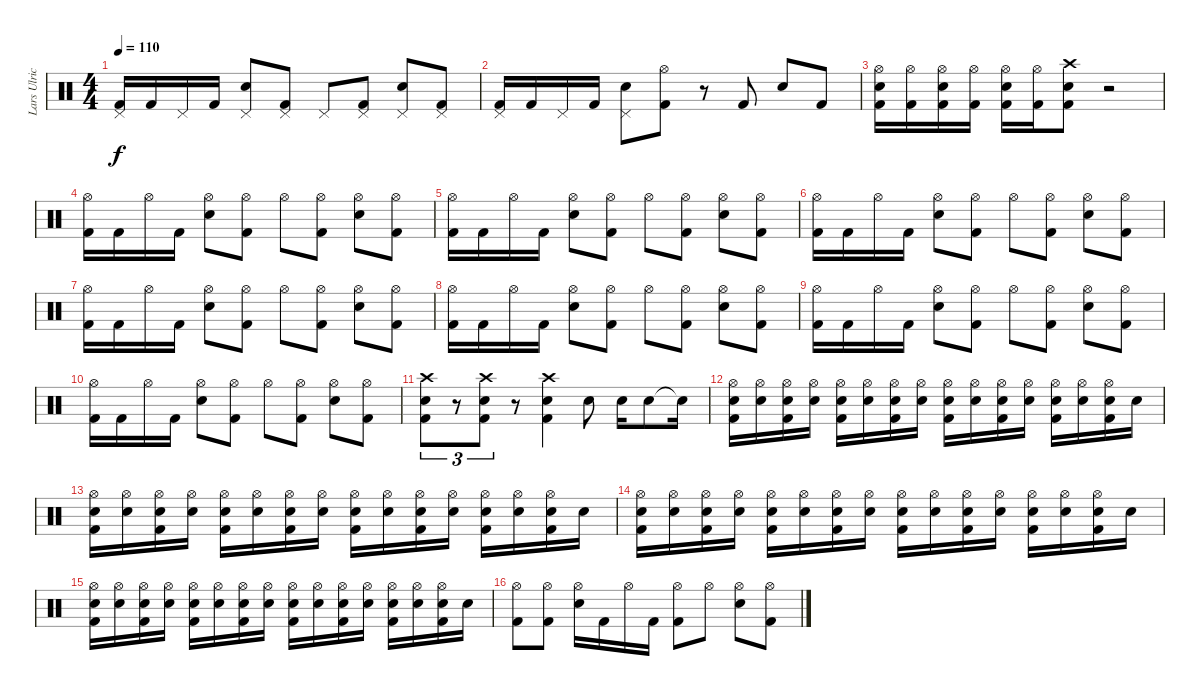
\track ("Lars Ulrich" "Lars Ulric") {instrument percussion}
\staff {score}
\articulation defaults
\ts (4 4)
\tempo 110
\clef neutral
\ks c
("Pedal Hi-Hat (hit)" "Kick (hit) 2").16{dy f} "Kick (hit) 2".16 "Pedal Hi-Hat (hit)".16 "Kick (hit) 2".16 ("Pedal Hi-Hat (hit)" "Electric Snare (hit)").8 ("Pedal Hi-Hat (hit)" "Kick (hit) 2").8 "Pedal Hi-Hat (hit)".8 ("Pedal Hi-Hat (hit)" "Kick (hit) 2").8 ("Pedal Hi-Hat (hit)" "Electric Snare (hit)").8 ("Pedal Hi-Hat (hit)" "Kick (hit) 2").8 |
("Pedal Hi-Hat (hit)" "Kick (hit) 2").16 "Kick (hit) 2".16 "Pedal Hi-Hat (hit)".16 "Kick (hit) 2".16 ("Pedal Hi-Hat (hit)" "Electric Snare (hit)").8 ("Hi-Hat (open)" "Kick (hit) 2").8 r.8 "Kick (hit) 2".8 "Electric Snare (hit)".8 "Kick (hit) 2".8 |
("Hi-Hat (open)" "Electric Snare (hit)" "Kick (hit) 2").16 ("Hi-Hat (open)" "Kick (hit) 2").16 ("Hi-Hat (open)" "Electric Snare (hit)" "Kick (hit) 2").16 ("Hi-Hat (open)" "Kick (hit) 2").16 ("Hi-Hat (open)" "Electric Snare (hit)" "Kick (hit) 2").16 ("Hi-Hat (open)" "Kick (hit) 2").16 ("Crash high (hit)" "Electric Snare (hit)" "Kick (hit) 2").8 r.2 |
("Hi-Hat (open)" "Kick (hit) 2").16 "Kick (hit) 2".16 "Hi-Hat (open)".16 "Kick (hit) 2".16 ("Hi-Hat (open)" "Electric Snare (hit)").8 ("Hi-Hat (open)" "Kick (hit) 2").8 "Hi-Hat (open)".8 ("Hi-Hat (open)" "Kick (hit) 2").8 ("Hi-Hat (open)" "Electric Snare (hit)").8 ("Hi-Hat (open)" "Kick (hit) 2").8 |
("Hi-Hat (open)" "Kick (hit) 2").16 "Kick (hit) 2".16 "Hi-Hat (open)".16 "Kick (hit) 2".16 ("Hi-Hat (open)" "Electric Snare (hit)").8 ("Hi-Hat (open)" "Kick (hit) 2").8 "Hi-Hat (open)".8 ("Hi-Hat (open)" "Kick (hit) 2").8 ("Hi-Hat (open)" "Electric Snare (hit)").8 ("Hi-Hat (open)" "Kick (hit) 2").8 |
("Hi-Hat (open)" "Kick (hit) 2").16 "Kick (hit) 2".16 "Hi-Hat (open)".16 "Kick (hit) 2".16 ("Hi-Hat (open)" "Electric Snare (hit)").8 ("Hi-Hat (open)" "Kick (hit) 2").8 "Hi-Hat (open)".8 ("Hi-Hat (open)" "Kick (hit) 2").8 ("Hi-Hat (open)" "Electric Snare (hit)").8 ("Hi-Hat (open)" "Kick (hit) 2").8 |
("Hi-Hat (open)" "Kick (hit) 2").16 "Kick (hit) 2".16 "Hi-Hat (open)".16 "Kick (hit) 2".16 ("Hi-Hat (open)" "Electric Snare (hit)").8 ("Hi-Hat (open)" "Kick (hit) 2").8 "Hi-Hat (open)".8 ("Hi-Hat (open)" "Kick (hit) 2").8 ("Hi-Hat (open)" "Electric Snare (hit)").8 ("Hi-Hat (open)" "Kick (hit) 2").8 |
("Hi-Hat (open)" "Kick (hit) 2").16 "Kick (hit) 2".16 "Hi-Hat (open)".16 "Kick (hit) 2".16 ("Hi-Hat (open)" "Electric Snare (hit)").8 ("Hi-Hat (open)" "Kick (hit) 2").8 "Hi-Hat (open)".8 ("Hi-Hat (open)" "Kick (hit) 2").8 ("Hi-Hat (open)" "Electric Snare (hit)").8 ("Hi-Hat (open)" "Kick (hit) 2").8 |
("Hi-Hat (open)" "Kick (hit) 2").16 "Kick (hit) 2".16 "Hi-Hat (open)".16 "Kick (hit) 2".16 ("Hi-Hat (open)" "Electric Snare (hit)").8 ("Hi-Hat (open)" "Kick (hit) 2").8 "Hi-Hat (open)".8 ("Hi-Hat (open)" "Kick (hit) 2").8 ("Hi-Hat (open)" "Electric Snare (hit)").8 ("Hi-Hat (open)" "Kick (hit) 2").8 |
("Hi-Hat (open)" "Kick (hit) 2").16 "Kick (hit) 2".16 "Hi-Hat (open)".16 "Kick (hit) 2".16 ("Hi-Hat (open)" "Electric Snare (hit)").8 ("Hi-Hat (open)" "Kick (hit) 2").8 "Hi-Hat (open)".8 ("Hi-Hat (open)" "Kick (hit) 2").8 ("Hi-Hat (open)" "Electric Snare (hit)").8 ("Hi-Hat (open)" "Kick (hit) 2").8 |
("Crash high (hit)" "Electric Snare (hit)" "Kick (hit) 2").8{tu (3 2)} r.8{tu (3 2)} ("Crash high (hit)" "Electric Snare (hit)" "Kick (hit) 2").8{tu (3 2)} r.8 ("Crash high (hit)" "Electric Snare (hit)" "Kick (hit) 2").4 "Electric Snare (hit)".8 "Electric Snare (hit)".16 "Electric Snare (hit)".8 "Snare (hit)"{t}.16 |
("Hi-Hat (open)" "Electric Snare (hit)" "Kick (hit) 2").16 ("Hi-Hat (open)" "Electric Snare (hit)").16 ("Hi-Hat (open)" "Electric Snare (hit)" "Kick (hit) 2").16 ("Hi-Hat (open)" "Electric Snare (hit)").16 ("Hi-Hat (open)" "Electric Snare (hit)" "Kick (hit) 2").16 ("Hi-Hat (open)" "Electric Snare (hit)").16 ("Hi-Hat (open)" "Electric Snare (hit)" "Kick (hit) 2").16 ("Hi-Hat (open)" "Electric Snare (hit)").16 ("Hi-Hat (open)" "Electric Snare (hit)" "Kick (hit) 2").16 ("Hi-Hat (open)" "Electric Snare (hit)").16 ("Hi-Hat (open)" "Electric Snare (hit)" "Kick (hit) 2").16 ("Hi-Hat (open)" "Electric Snare (hit)").16 ("Hi-Hat (open)" "Electric Snare (hit)" "Kick (hit) 2").16 ("Hi-Hat (open)" "Electric Snare (hit)").16 ("Hi-Hat (open)" "Electric Snare (hit)" "Kick (hit) 2").16 "Electric Snare (hit)".16 |
("Hi-Hat (open)" "Electric Snare (hit)" "Kick (hit) 2").16 ("Hi-Hat (open)" "Electric Snare (hit)").16 ("Hi-Hat (open)" "Electric Snare (hit)" "Kick (hit) 2").16 ("Hi-Hat (open)" "Electric Snare (hit)").16 ("Hi-Hat (open)" "Electric Snare (hit)" "Kick (hit) 2").16 ("Hi-Hat (open)" "Electric Snare (hit)").16 ("Hi-Hat (open)" "Electric Snare (hit)" "Kick (hit) 2").16 ("Hi-Hat (open)" "Electric Snare (hit)").16 ("Hi-Hat (open)" "Electric Snare (hit)" "Kick (hit) 2").16 ("Hi-Hat (open)" "Electric Snare (hit)").16 ("Hi-Hat (open)" "Electric Snare (hit)" "Kick (hit) 2").16 ("Hi-Hat (open)" "Electric Snare (hit)").16 ("Hi-Hat (open)" "Electric Snare (hit)" "Kick (hit) 2").16 ("Hi-Hat (open)" "Electric Snare (hit)").16 ("Hi-Hat (open)" "Electric Snare (hit)" "Kick (hit) 2").16 "Electric Snare (hit)".16 |
("Hi-Hat (open)" "Electric Snare (hit)" "Kick (hit) 2").16 ("Hi-Hat (open)" "Electric Snare (hit)").16 ("Hi-Hat (open)" "Electric Snare (hit)" "Kick (hit) 2").16 ("Hi-Hat (open)" "Electric Snare (hit)").16 ("Hi-Hat (open)" "Electric Snare (hit)" "Kick (hit) 2").16 ("Hi-Hat (open)" "Electric Snare (hit)").16 ("Hi-Hat (open)" "Electric Snare (hit)" "Kick (hit) 2").16 ("Hi-Hat (open)" "Electric Snare (hit)").16 ("Hi-Hat (open)" "Electric Snare (hit)" "Kick (hit) 2").16 ("Hi-Hat (open)" "Electric Snare (hit)").16 ("Hi-Hat (open)" "Electric Snare (hit)" "Kick (hit) 2").16 ("Hi-Hat (open)" "Electric Snare (hit)").16 ("Hi-Hat (open)" "Electric Snare (hit)" "Kick (hit) 2").16 ("Hi-Hat (open)" "Electric Snare (hit)").16 ("Hi-Hat (open)" "Electric Snare (hit)" "Kick (hit) 2").16 "Electric Snare (hit)".16 |
("Hi-Hat (open)" "Electric Snare (hit)" "Kick (hit) 2").16 ("Hi-Hat (open)" "Electric Snare (hit)").16 ("Hi-Hat (open)" "Electric Snare (hit)" "Kick (hit) 2").16 ("Hi-Hat (open)" "Electric Snare (hit)").16 ("Hi-Hat (open)" "Electric Snare (hit)" "Kick (hit) 2").16 ("Hi-Hat (open)" "Electric Snare (hit)").16 ("Hi-Hat (open)" "Electric Snare (hit)" "Kick (hit) 2").16 ("Hi-Hat (open)" "Electric Snare (hit)").16 ("Hi-Hat (open)" "Electric Snare (hit)" "Kick (hit) 2").16 ("Hi-Hat (open)" "Electric Snare (hit)").16 ("Hi-Hat (open)" "Electric Snare (hit)" "Kick (hit) 2").16 ("Hi-Hat (open)" "Electric Snare (hit)").16 ("Hi-Hat (open)" "Electric Snare (hit)" "Kick (hit) 2").16 ("Hi-Hat (open)" "Electric Snare (hit)").16 ("Hi-Hat (open)" "Electric Snare (hit)" "Kick (hit) 2").16 "Electric Snare (hit)".16 |
("Hi-Hat (open)" "Kick (hit) 2").8 ("Hi-Hat (open)" "Kick (hit) 2").8 ("Hi-Hat (open)" "Electric Snare (hit)").16 "Kick (hit) 2".16 "Hi-Hat (open)".16 "Kick (hit) 2".16 ("Hi-Hat (open)" "Kick (hit) 2").8 "Hi-Hat (open)".8 ("Hi-Hat (open)" "Electric Snare (hit)").8 ("Hi-Hat (open)" "Kick (hit) 2").8
